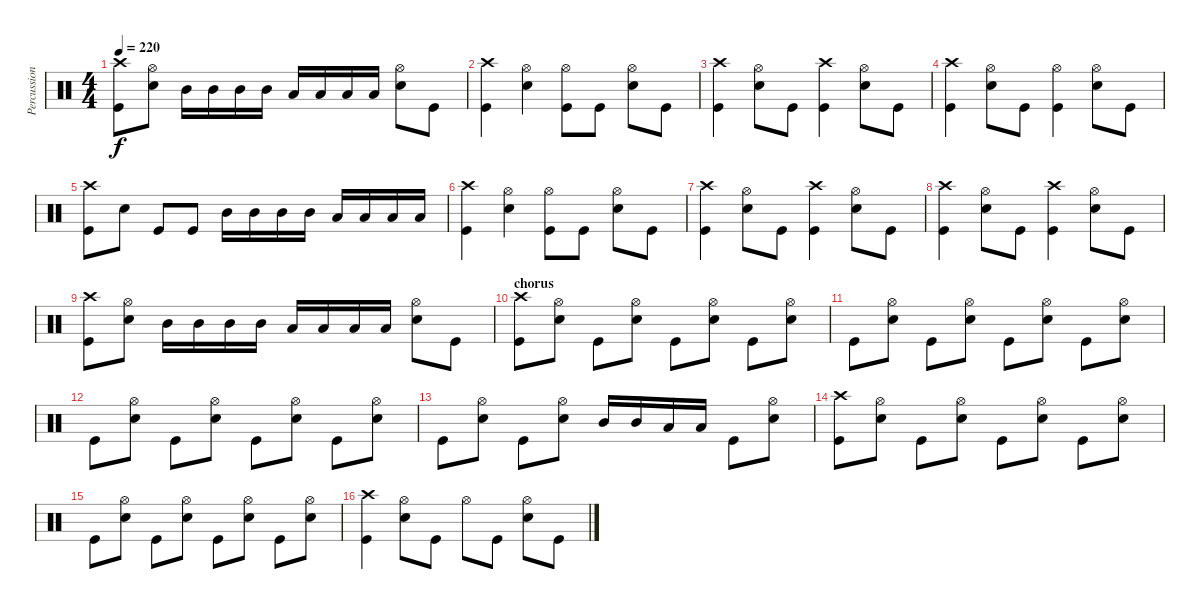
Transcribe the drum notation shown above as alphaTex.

\track ("Percussion" "Percussion") {instrument percussion}
\staff {score}
\articulation defaults
\ts (4 4)
\tempo 220
\clef neutral
\ks c
("Crash high (hit)" "Kick (hit)").8{dy f} ("Electric Snare (hit)" "Hi-Hat (open)").8 "Mid Tom (hit)".16 "Mid Tom (hit)".16 "Mid Tom (hit)".16 "Mid Tom (hit)".16 "Low Tom (hit)".16 "Low Tom (hit)".16 "Low Tom (hit)".16 "Low Tom (hit)".16 ("Electric Snare (hit)" "Hi-Hat (open)").8 "Kick (hit)".8 |
("Crash high (hit)" "Kick (hit)").4 ("Hi-Hat (open)" "Electric Snare (hit)").4 ("Kick (hit)" "Hi-Hat (open)").8 "Kick (hit)".8 ("Electric Snare (hit)" "Hi-Hat (open)").8 "Kick (hit)".8 |
("Crash high (hit)" "Kick (hit)").4 ("Hi-Hat (open)" "Electric Snare (hit)").8 "Kick (hit)".8 ("Kick (hit)" "Crash high (hit)").4 ("Electric Snare (hit)" "Hi-Hat (open)").8 "Kick (hit)".8 |
("Crash high (hit)" "Kick (hit)").4 ("Hi-Hat (open)" "Electric Snare (hit)").8 "Kick (hit)".8 ("Kick (hit)" "Hi-Hat (open)").4 ("Electric Snare (hit)" "Hi-Hat (open)").8 "Kick (hit)".8 |
("Crash high (hit)" "Kick (hit)").8 "Electric Snare (hit)".8 "Kick (hit)".8 "Kick (hit)".8 "Mid Tom (hit)".16 "Mid Tom (hit)".16 "Mid Tom (hit)".16 "Mid Tom (hit)".16 "Low Tom (hit)".16 "Low Tom (hit)".16 "Low Tom (hit)".16 "Low Tom (hit)".16 |
("Crash high (hit)" "Kick (hit)").4 ("Hi-Hat (open)" "Electric Snare (hit)").4 ("Kick (hit)" "Hi-Hat (open)").8 "Kick (hit)".8 ("Electric Snare (hit)" "Hi-Hat (open)").8 "Kick (hit)".8 |
("Crash high (hit)" "Kick (hit)").4 ("Hi-Hat (open)" "Electric Snare (hit)").8 "Kick (hit)".8 ("Kick (hit)" "Crash high (hit)").4 ("Electric Snare (hit)" "Hi-Hat (open)").8 "Kick (hit)".8 |
("Crash high (hit)" "Kick (hit)").4 ("Hi-Hat (open)" "Electric Snare (hit)").8 "Kick (hit)".8 ("Kick (hit)" "Crash high (hit)").4 ("Electric Snare (hit)" "Hi-Hat (open)").8 "Kick (hit)".8 |
("Crash high (hit)" "Kick (hit)").8 ("Electric Snare (hit)" "Hi-Hat (open)").8 "Mid Tom (hit)".16 "Mid Tom (hit)".16 "Mid Tom (hit)".16 "Mid Tom (hit)".16 "Low Tom (hit)".16 "Low Tom (hit)".16 "Low Tom (hit)".16 "Low Tom (hit)".16 ("Electric Snare (hit)" "Hi-Hat (open)").8 "Kick (hit)".8 |
\section ("" "chorus")
("Kick (hit)" "Crash high (hit)").8 ("Electric Snare (hit)" "Hi-Hat (open)").8 "Kick (hit)".8 ("Electric Snare (hit)" "Hi-Hat (open)").8 "Kick (hit)".8 ("Electric Snare (hit)" "Hi-Hat (open)").8 "Kick (hit)".8 ("Electric Snare (hit)" "Hi-Hat (open)").8 |
"Kick (hit)".8 ("Electric Snare (hit)" "Hi-Hat (open)").8 "Kick (hit)".8 ("Electric Snare (hit)" "Hi-Hat (open)").8 "Kick (hit)".8 ("Electric Snare (hit)" "Hi-Hat (open)").8 "Kick (hit)".8 ("Electric Snare (hit)" "Hi-Hat (open)").8 |
"Kick (hit)".8 ("Electric Snare (hit)" "Hi-Hat (open)").8 "Kick (hit)".8 ("Electric Snare (hit)" "Hi-Hat (open)").8 "Kick (hit)".8 ("Electric Snare (hit)" "Hi-Hat (open)").8 "Kick (hit)".8 ("Electric Snare (hit)" "Hi-Hat (open)").8 |
"Kick (hit)".8 ("Electric Snare (hit)" "Hi-Hat (open)").8 "Kick (hit)".8 ("Electric Snare (hit)" "Hi-Hat (open)").8 "Mid Tom (hit)".16 "Mid Tom (hit)".16 "Low Tom (hit)".16 "Low Tom (hit)".16 "Kick (hit)".8 ("Electric Snare (hit)" "Hi-Hat (open)").8 |
("Kick (hit)" "Crash high (hit)").8 ("Electric Snare (hit)" "Hi-Hat (open)").8 "Kick (hit)".8 ("Electric Snare (hit)" "Hi-Hat (open)").8 "Kick (hit)".8 ("Electric Snare (hit)" "Hi-Hat (open)").8 "Kick (hit)".8 ("Electric Snare (hit)" "Hi-Hat (open)").8 |
"Kick (hit)".8 ("Electric Snare (hit)" "Hi-Hat (open)").8 "Kick (hit)".8 ("Electric Snare (hit)" "Hi-Hat (open)").8 "Kick (hit)".8 ("Electric Snare (hit)" "Hi-Hat (open)").8 "Kick (hit)".8 ("Electric Snare (hit)" "Hi-Hat (open)").8 |
("Kick (hit)" "Crash high (hit)").4 ("Electric Snare (hit)" "Hi-Hat (open)").8 "Kick (hit)".8 "Hi-Hat (open)".8 "Kick (hit)".8 ("Hi-Hat (open)" "Electric Snare (hit)").8 "Kick (hit)".8
